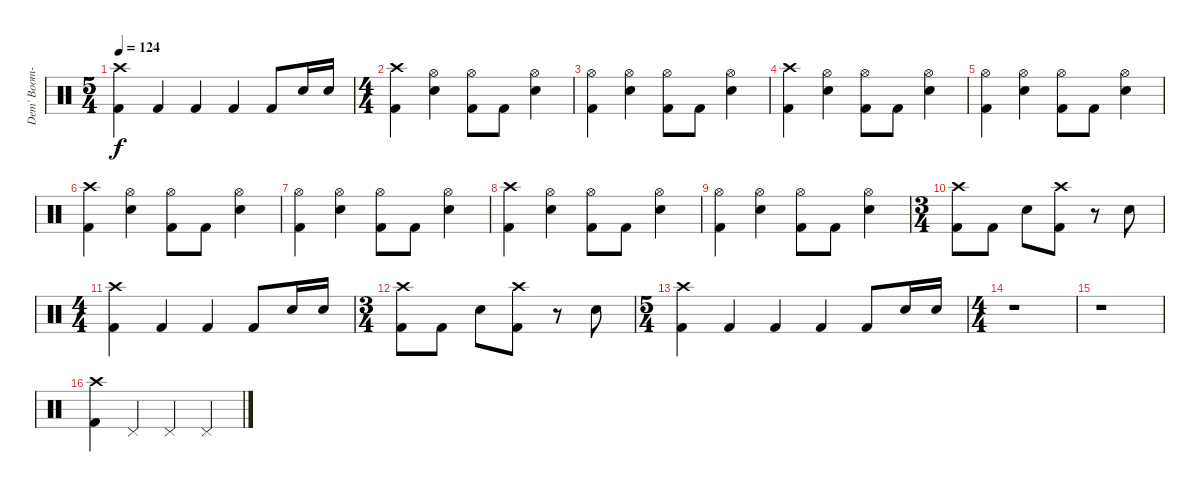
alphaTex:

\track ("Dem' Boom-Booms" "Dem' Boom-") {instrument percussion}
\staff {score}
\articulation defaults
\ts (5 4)
\tempo 124
\clef neutral
\ks c
("Crash high (hit)" "Kick (hit) 2").4{dy f} "Kick (hit) 2".4 "Kick (hit) 2".4 "Kick (hit) 2".4 "Kick (hit) 2".8 "Electric Snare (hit)".16 "Electric Snare (hit)".16 |
\ts (4 4)
("Crash high (hit)" "Kick (hit) 2").4 ("Hi-Hat (open)" "Electric Snare (hit)").4 ("Hi-Hat (open)" "Kick (hit) 2").8 "Kick (hit) 2".8 ("Hi-Hat (open)" "Electric Snare (hit)").4 |
("Hi-Hat (open)" "Kick (hit) 2").4 ("Hi-Hat (open)" "Electric Snare (hit)").4 ("Hi-Hat (open)" "Kick (hit) 2").8 "Kick (hit) 2".8 ("Hi-Hat (open)" "Electric Snare (hit)").4 |
("Crash high (hit)" "Kick (hit) 2").4 ("Hi-Hat (open)" "Electric Snare (hit)").4 ("Hi-Hat (open)" "Kick (hit) 2").8 "Kick (hit) 2".8 ("Hi-Hat (open)" "Electric Snare (hit)").4 |
("Hi-Hat (open)" "Kick (hit) 2").4 ("Hi-Hat (open)" "Electric Snare (hit)").4 ("Hi-Hat (open)" "Kick (hit) 2").8 "Kick (hit) 2".8 ("Hi-Hat (open)" "Electric Snare (hit)").4 |
("Crash high (hit)" "Kick (hit) 2").4 ("Hi-Hat (open)" "Electric Snare (hit)").4 ("Hi-Hat (open)" "Kick (hit) 2").8 "Kick (hit) 2".8 ("Hi-Hat (open)" "Electric Snare (hit)").4 |
("Hi-Hat (open)" "Kick (hit) 2").4 ("Hi-Hat (open)" "Electric Snare (hit)").4 ("Hi-Hat (open)" "Kick (hit) 2").8 "Kick (hit) 2".8 ("Hi-Hat (open)" "Electric Snare (hit)").4 |
("Crash high (hit)" "Kick (hit) 2").4 ("Hi-Hat (open)" "Electric Snare (hit)").4 ("Hi-Hat (open)" "Kick (hit) 2").8 "Kick (hit) 2".8 ("Hi-Hat (open)" "Electric Snare (hit)").4 |
("Hi-Hat (open)" "Kick (hit) 2").4 ("Hi-Hat (open)" "Electric Snare (hit)").4 ("Hi-Hat (open)" "Kick (hit) 2").8 "Kick (hit) 2".8 ("Hi-Hat (open)" "Electric Snare (hit)").4 |
\ts (3 4)
("Crash high (hit)" "Kick (hit) 2").8 "Kick (hit) 2".8 "Electric Snare (hit)".8 ("Crash high (hit)" "Kick (hit) 2").8 r.8 "Electric Snare (hit)".8 |
\ts (4 4)
("Crash high (hit)" "Kick (hit) 2").4 "Kick (hit) 2".4 "Kick (hit) 2".4 "Kick (hit) 2".8 "Electric Snare (hit)".16 "Electric Snare (hit)".16 |
\ts (3 4)
("Crash high (hit)" "Kick (hit) 2").8 "Kick (hit) 2".8 "Electric Snare (hit)".8 ("Crash high (hit)" "Kick (hit) 2").8 r.8 "Electric Snare (hit)".8 |
\ts (5 4)
("Crash high (hit)" "Kick (hit) 2").4 "Kick (hit) 2".4 "Kick (hit) 2".4 "Kick (hit) 2".4 "Kick (hit) 2".8 "Electric Snare (hit)".16 "Electric Snare (hit)".16 |
\ts (4 4)
r.1 |
r.1 |
("Crash high (hit)" "Kick (hit) 2").4 "Pedal Hi-Hat (hit)".4 "Pedal Hi-Hat (hit)".4 "Pedal Hi-Hat (hit)".4
